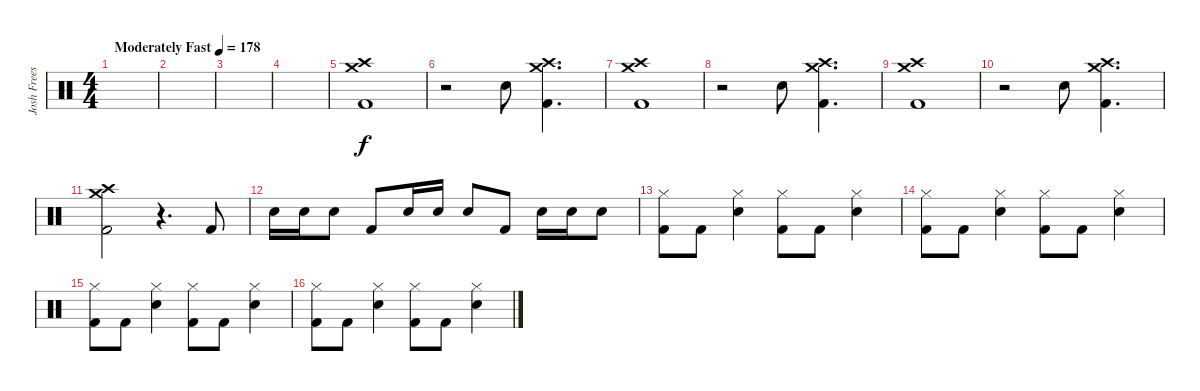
\track ("Josh Freese" "Josh Frees") {instrument percussion}
\staff {score}
\articulation defaults
\ts (4 4)
\tempo (178 "Moderately Fast")
\clef neutral
\ks c
|
|
|
|
("Crash medium (hit)" "Crash high (hit)" "Kick (hit) 2").1 |
r.2 "Electric Snare (hit)".8 ("Crash medium (hit)" "Crash high (hit)" "Kick (hit) 2").4{d} |
("Crash medium (hit)" "Crash high (hit)" "Kick (hit) 2").1 |
r.2 "Electric Snare (hit)".8 ("Crash medium (hit)" "Crash high (hit)" "Kick (hit) 2").4{d} |
("Crash medium (hit)" "Crash high (hit)" "Kick (hit) 2").1 |
r.2 "Electric Snare (hit)".8 ("Crash medium (hit)" "Crash high (hit)" "Kick (hit) 2").4{d} |
("Crash medium (hit)" "Crash high (hit)" "Kick (hit) 2").2 r.4{d} "Kick (hit) 2".8 |
"Electric Snare (hit)".16 "Electric Snare (hit)".16 "Electric Snare (hit)".8 "Kick (hit) 2".8 "Electric Snare (hit)".16 "Electric Snare (hit)".16 "Electric Snare (hit)".8 "Kick (hit) 2".8 "Electric Snare (hit)".16 "Electric Snare (hit)".16 "Electric Snare (hit)".8 |
("Hi-Hat (closed)" "Kick (hit) 2").8 "Kick (hit) 2".8 ("Hi-Hat (closed)" "Electric Snare (hit)").4 ("Hi-Hat (closed)" "Kick (hit) 2").8 "Kick (hit) 2".8 ("Hi-Hat (closed)" "Electric Snare (hit)").4 |
("Hi-Hat (closed)" "Kick (hit) 2").8 "Kick (hit) 2".8 ("Hi-Hat (closed)" "Electric Snare (hit)").4 ("Hi-Hat (closed)" "Kick (hit) 2").8 "Kick (hit) 2".8 ("Hi-Hat (closed)" "Electric Snare (hit)").4 |
("Hi-Hat (closed)" "Kick (hit) 2").8 "Kick (hit) 2".8 ("Hi-Hat (closed)" "Electric Snare (hit)").4 ("Hi-Hat (closed)" "Kick (hit) 2").8 "Kick (hit) 2".8 ("Hi-Hat (closed)" "Electric Snare (hit)").4 |
("Hi-Hat (closed)" "Kick (hit) 2").8 "Kick (hit) 2".8 ("Hi-Hat (closed)" "Electric Snare (hit)").4 ("Hi-Hat (closed)" "Kick (hit) 2").8 "Kick (hit) 2".8 ("Hi-Hat (closed)" "Electric Snare (hit)").4
